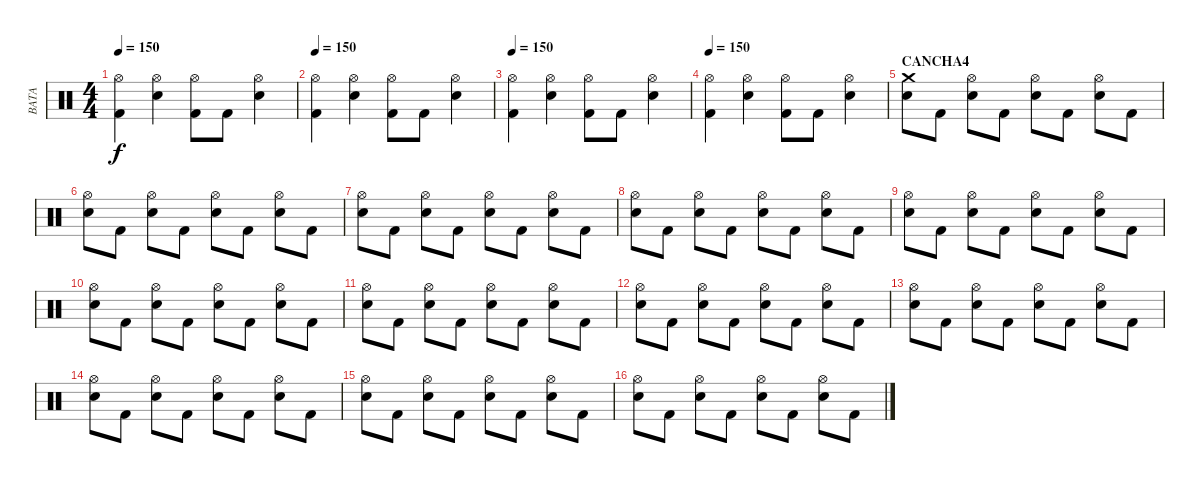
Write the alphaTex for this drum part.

\track ("BATA" "BATA") {instrument percussion}
\staff {score}
\articulation defaults
\ts (4 4)
\tempo 150
\clef neutral
\ks c
("Hi-Hat (open)" "Kick (hit) 2").4{dy f} ("Hi-Hat (open)" "Snare (hit) 2").4 ("Hi-Hat (open)" "Kick (hit) 2").8 "Kick (hit) 2".8 ("Hi-Hat (open)" "Snare (hit) 2").4 |
\tempo 150
("Hi-Hat (open)" "Kick (hit) 2").4 ("Hi-Hat (open)" "Snare (hit) 2").4 ("Hi-Hat (open)" "Kick (hit) 2").8 "Kick (hit) 2".8 ("Hi-Hat (open)" "Snare (hit) 2").4 |
\tempo 150
("Hi-Hat (open)" "Kick (hit) 2").4 ("Hi-Hat (open)" "Snare (hit) 2").4 ("Hi-Hat (open)" "Kick (hit) 2").8 "Kick (hit) 2".8 ("Hi-Hat (open)" "Snare (hit) 2").4 |
\tempo 150
("Hi-Hat (open)" "Kick (hit) 2").4 ("Hi-Hat (open)" "Snare (hit) 2").4 ("Hi-Hat (open)" "Kick (hit) 2").8 "Kick (hit) 2".8 ("Hi-Hat (open)" "Snare (hit) 2").4 |
\section ("" "CANCHA4")
("Crash medium (hit)" "Snare (hit) 2").8 "Kick (hit) 2".8 ("Hi-Hat (open)" "Snare (hit) 2").8 "Kick (hit) 2".8 ("Hi-Hat (open)" "Snare (hit) 2").8 "Kick (hit) 2".8 ("Hi-Hat (open)" "Snare (hit) 2").8 "Kick (hit) 2".8 |
("Hi-Hat (open)" "Snare (hit) 2").8 "Kick (hit) 2".8 ("Hi-Hat (open)" "Snare (hit) 2").8 "Kick (hit) 2".8 ("Hi-Hat (open)" "Snare (hit) 2").8 "Kick (hit) 2".8 ("Hi-Hat (open)" "Snare (hit) 2").8 "Kick (hit) 2".8 |
("Hi-Hat (open)" "Snare (hit) 2").8 "Kick (hit) 2".8 ("Hi-Hat (open)" "Snare (hit) 2").8 "Kick (hit) 2".8 ("Hi-Hat (open)" "Snare (hit) 2").8 "Kick (hit) 2".8 ("Hi-Hat (open)" "Snare (hit) 2").8 "Kick (hit) 2".8 |
("Hi-Hat (open)" "Snare (hit) 2").8 "Kick (hit) 2".8 ("Hi-Hat (open)" "Snare (hit) 2").8 "Kick (hit) 2".8 ("Hi-Hat (open)" "Snare (hit) 2").8 "Kick (hit) 2".8 ("Hi-Hat (open)" "Snare (hit) 2").8 "Kick (hit) 2".8 |
("Hi-Hat (open)" "Snare (hit) 2").8 "Kick (hit) 2".8 ("Hi-Hat (open)" "Snare (hit) 2").8 "Kick (hit) 2".8 ("Hi-Hat (open)" "Snare (hit) 2").8 "Kick (hit) 2".8 ("Hi-Hat (open)" "Snare (hit) 2").8 "Kick (hit) 2".8 |
("Hi-Hat (open)" "Snare (hit) 2").8 "Kick (hit) 2".8 ("Hi-Hat (open)" "Snare (hit) 2").8 "Kick (hit) 2".8 ("Hi-Hat (open)" "Snare (hit) 2").8 "Kick (hit) 2".8 ("Hi-Hat (open)" "Snare (hit) 2").8 "Kick (hit) 2".8 |
("Hi-Hat (open)" "Snare (hit) 2").8 "Kick (hit) 2".8 ("Hi-Hat (open)" "Snare (hit) 2").8 "Kick (hit) 2".8 ("Hi-Hat (open)" "Snare (hit) 2").8 "Kick (hit) 2".8 ("Hi-Hat (open)" "Snare (hit) 2").8 "Kick (hit) 2".8 |
("Hi-Hat (open)" "Snare (hit) 2").8 "Kick (hit) 2".8 ("Hi-Hat (open)" "Snare (hit) 2").8 "Kick (hit) 2".8 ("Hi-Hat (open)" "Snare (hit) 2").8 "Kick (hit) 2".8 ("Hi-Hat (open)" "Snare (hit) 2").8 "Kick (hit) 2".8 |
("Hi-Hat (open)" "Snare (hit) 2").8 "Kick (hit) 2".8 ("Hi-Hat (open)" "Snare (hit) 2").8 "Kick (hit) 2".8 ("Hi-Hat (open)" "Snare (hit) 2").8 "Kick (hit) 2".8 ("Hi-Hat (open)" "Snare (hit) 2").8 "Kick (hit) 2".8 |
("Hi-Hat (open)" "Snare (hit) 2").8 "Kick (hit) 2".8 ("Hi-Hat (open)" "Snare (hit) 2").8 "Kick (hit) 2".8 ("Hi-Hat (open)" "Snare (hit) 2").8 "Kick (hit) 2".8 ("Hi-Hat (open)" "Snare (hit) 2").8 "Kick (hit) 2".8 |
("Hi-Hat (open)" "Snare (hit) 2").8 "Kick (hit) 2".8 ("Hi-Hat (open)" "Snare (hit) 2").8 "Kick (hit) 2".8 ("Hi-Hat (open)" "Snare (hit) 2").8 "Kick (hit) 2".8 ("Hi-Hat (open)" "Snare (hit) 2").8 "Kick (hit) 2".8 |
("Hi-Hat (open)" "Snare (hit) 2").8 "Kick (hit) 2".8 ("Hi-Hat (open)" "Snare (hit) 2").8 "Kick (hit) 2".8 ("Hi-Hat (open)" "Snare (hit) 2").8 "Kick (hit) 2".8 ("Hi-Hat (open)" "Snare (hit) 2").8 "Kick (hit) 2".8
